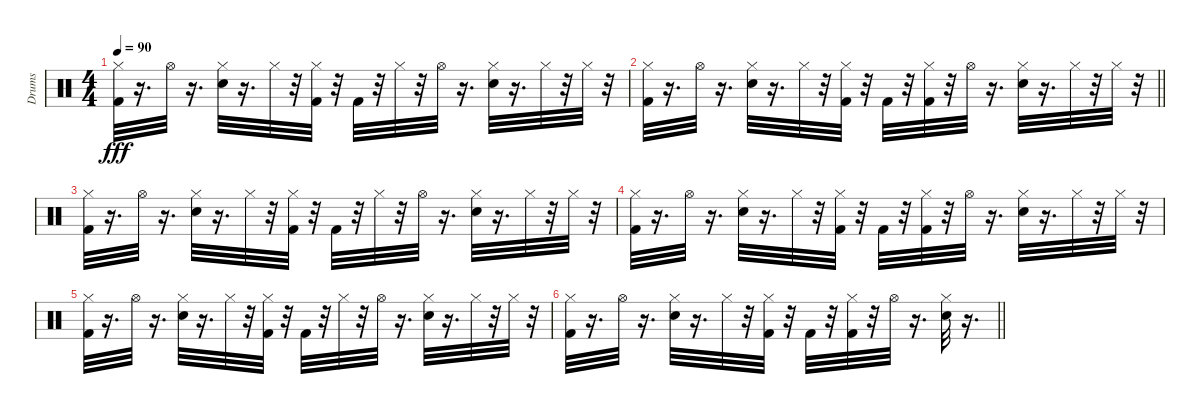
\track ("Drums" "Drums") {instrument percussion}
\staff {score}
\articulation defaults
\ts (4 4)
\tempo 90
\clef neutral
\ks c
("Hi-Hat (closed)" "Kick (hit) 2").32{dy fff} r.16{d} "Hi-Hat (open)".32 r.16{d} ("Hi-Hat (closed)" "Snare (hit) 2").32 r.16{d} "Hi-Hat (closed)".32 r.32 ("Hi-Hat (closed)" "Kick (hit) 2").32 r.32 "Kick (hit) 2".32 r.32 "Hi-Hat (closed)".32 r.32 "Hi-Hat (open)".32 r.16{d} ("Snare (hit) 2" "Hi-Hat (closed)").32 r.16{d} "Hi-Hat (closed)".32 r.32 "Hi-Hat (closed)".32 r.32 |
\barLineRight lightlight
("Hi-Hat (closed)" "Kick (hit) 2").32 r.16{d} "Hi-Hat (open)".32 r.16{d} ("Hi-Hat (closed)" "Snare (hit) 2").32 r.16{d} "Hi-Hat (closed)".32 r.32 ("Hi-Hat (closed)" "Kick (hit) 2").32 r.32 "Kick (hit) 2".32 r.32 ("Kick (hit) 2" "Hi-Hat (closed)").32 r.32 "Hi-Hat (open)".32 r.16{d} ("Hi-Hat (closed)" "Snare (hit) 2").32 r.16{d} "Hi-Hat (closed)".32 r.32 "Hi-Hat (closed)".32 r.32 |
("Hi-Hat (closed)" "Kick (hit) 2").32 r.16{d} "Hi-Hat (open)".32 r.16{d} ("Hi-Hat (closed)" "Snare (hit) 2").32 r.16{d} "Hi-Hat (closed)".32 r.32 ("Hi-Hat (closed)" "Kick (hit) 2").32 r.32 "Kick (hit) 2".32 r.32 "Hi-Hat (closed)".32 r.32 "Hi-Hat (open)".32 r.16{d} ("Snare (hit) 2" "Hi-Hat (closed)").32 r.16{d} "Hi-Hat (closed)".32 r.32 "Hi-Hat (closed)".32 r.32 |
("Hi-Hat (closed)" "Kick (hit) 2").32 r.16{d} "Hi-Hat (open)".32 r.16{d} ("Snare (hit) 2" "Hi-Hat (closed)").32 r.16{d} "Hi-Hat (closed)".32 r.32 ("Hi-Hat (closed)" "Kick (hit) 2").32 r.32 "Kick (hit) 2".32 r.32 ("Kick (hit) 2" "Hi-Hat (closed)").32 r.32 "Hi-Hat (open)".32 r.16{d} ("Snare (hit) 2" "Hi-Hat (closed)").32 r.16{d} "Hi-Hat (closed)".32 r.32 "Hi-Hat (closed)".32 r.32 |
("Kick (hit) 2" "Hi-Hat (closed)").32 r.16{d} "Hi-Hat (open)".32 r.16{d} ("Hi-Hat (closed)" "Snare (hit) 2").32 r.16{d} "Hi-Hat (closed)".32 r.32 ("Kick (hit) 2" "Hi-Hat (closed)").32 r.32 "Kick (hit) 2".32 r.32 "Hi-Hat (closed)".32 r.32 "Hi-Hat (open)".32 r.16{d} ("Hi-Hat (closed)" "Snare (hit) 2").32 r.16{d} "Hi-Hat (closed)".32 r.32 "Hi-Hat (closed)".32 r.32 |
\barLineRight lightlight
("Kick (hit) 2" "Hi-Hat (closed)").32 r.16{d} "Hi-Hat (open)".32 r.16{d} ("Snare (hit) 2" "Hi-Hat (closed)").32 r.16{d} "Hi-Hat (closed)".32 r.32 ("Kick (hit) 2" "Hi-Hat (closed)").32 r.32 "Kick (hit) 2".32 r.32 ("Kick (hit) 2" "Hi-Hat (closed)").32 r.32 "Hi-Hat (open)".32 r.16{d} ("Hi-Hat (closed)" "Snare (hit) 2").32 r.16{d}
